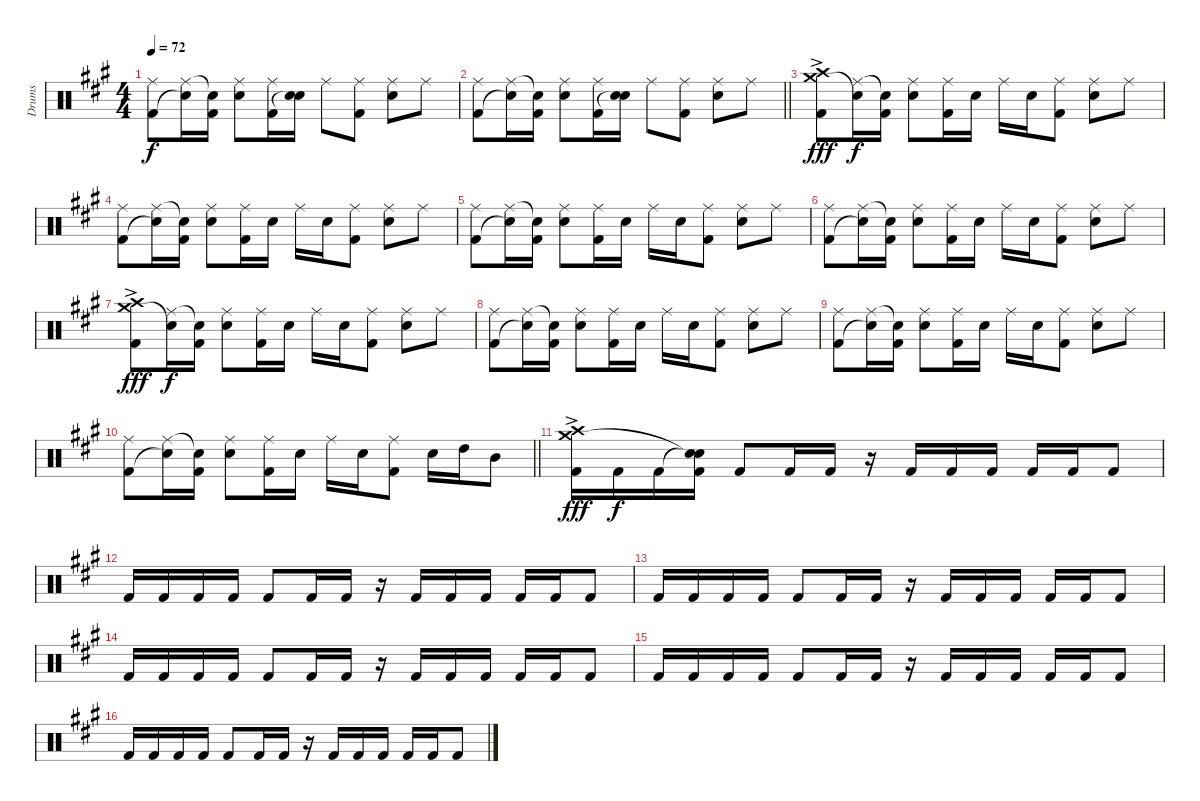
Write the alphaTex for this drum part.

\track ("Drums" "Drums") {instrument percussion}
\staff {score}
\articulation defaults
\ts (4 4)
\tempo 72
\clef neutral
\ks a
("Ride (middle)" "Kick (hit) 2").8{dy f} ("Ride (middle)" "Snare (hit)"{t}).16 ("Snare (hit)"{t} "Kick (hit) 2").16 ("Ride (middle)" "Snare (hit) 2").8 ("Ride (middle)" "Kick (hit) 2").16 ("Snare (hit) 2" "Snare (hit)"{t}).16 "Ride (middle)".8 ("Ride (middle)" "Kick (hit) 2").8 ("Ride (middle)" "Snare (hit) 2").8 "Ride (middle)".8 |
\barLineRight lightlight
("Ride (middle)" "Kick (hit) 2").8 ("Ride (middle)" "Snare (hit)"{t}).16 ("Snare (hit)"{t} "Kick (hit) 2").16 ("Ride (middle)" "Snare (hit) 2").8 ("Ride (middle)" "Kick (hit) 2").16 ("Snare (hit) 2" "Snare (hit)"{t}).16 "Ride (middle)".8 ("Ride (middle)" "Kick (hit) 2").8 ("Ride (middle)" "Snare (hit) 2").8 "Ride (middle)".8 |
("Crash high (hit)"{ac} "Crash medium (hit)"{ac} "Kick (hit) 2"{ac}).8{dy fff} ("Ride (middle)" "Snare (hit)"{t}).16{dy f} ("Snare (hit)"{t} "Kick (hit) 2").16 ("Ride (middle)" "Snare (hit) 2").8 ("Ride (middle)" "Kick (hit) 2").16 "Snare (hit) 2".16 "Ride (middle)".16 "Snare (hit) 2".16 ("Ride (middle)" "Kick (hit) 2").8 ("Ride (middle)" "Snare (hit) 2").8 "Ride (middle)".8 |
("Ride (middle)" "Kick (hit) 2").8 ("Ride (middle)" "Snare (hit)"{t}).16 ("Snare (hit)"{t} "Kick (hit) 2").16 ("Ride (middle)" "Snare (hit) 2").8 ("Ride (middle)" "Kick (hit) 2").16 "Snare (hit) 2".16 "Ride (middle)".16 "Snare (hit) 2".16 ("Ride (middle)" "Kick (hit) 2").8 ("Ride (middle)" "Snare (hit) 2").8 "Ride (middle)".8 |
("Ride (middle)" "Kick (hit) 2").8 ("Ride (middle)" "Snare (hit)"{t}).16 ("Snare (hit)"{t} "Kick (hit) 2").16 ("Ride (middle)" "Snare (hit) 2").8 ("Ride (middle)" "Kick (hit) 2").16 "Snare (hit) 2".16 "Ride (middle)".16 "Snare (hit) 2".16 ("Ride (middle)" "Kick (hit) 2").8 ("Ride (middle)" "Snare (hit) 2").8 "Ride (middle)".8 |
("Ride (middle)" "Kick (hit) 2").8 ("Ride (middle)" "Snare (hit)"{t}).16 ("Snare (hit)"{t} "Kick (hit) 2").16 ("Ride (middle)" "Snare (hit) 2").8 ("Ride (middle)" "Kick (hit) 2").16 "Snare (hit) 2".16 "Ride (middle)".16 "Snare (hit) 2".16 ("Ride (middle)" "Kick (hit) 2").8 ("Ride (middle)" "Snare (hit) 2").8 "Ride (middle)".8 |
("Crash high (hit)"{ac} "Crash medium (hit)"{ac} "Kick (hit) 2"{ac}).8{dy fff} ("Ride (middle)" "Snare (hit)"{t}).16{dy f} ("Snare (hit)"{t} "Kick (hit) 2").16 ("Ride (middle)" "Snare (hit) 2").8 ("Ride (middle)" "Kick (hit) 2").16 "Snare (hit) 2".16 "Ride (middle)".16 "Snare (hit) 2".16 ("Ride (middle)" "Kick (hit) 2").8 ("Ride (middle)" "Snare (hit) 2").8 "Ride (middle)".8 |
("Ride (middle)" "Kick (hit) 2").8 ("Ride (middle)" "Snare (hit)"{t}).16 ("Snare (hit)"{t} "Kick (hit) 2").16 ("Ride (middle)" "Snare (hit) 2").8 ("Ride (middle)" "Kick (hit) 2").16 "Snare (hit) 2".16 "Ride (middle)".16 "Snare (hit) 2".16 ("Ride (middle)" "Kick (hit) 2").8 ("Ride (middle)" "Snare (hit) 2").8 "Ride (middle)".8 |
("Ride (middle)" "Kick (hit) 2").8 ("Ride (middle)" "Snare (hit)"{t}).16 ("Snare (hit)"{t} "Kick (hit) 2").16 ("Ride (middle)" "Snare (hit) 2").8 ("Ride (middle)" "Kick (hit) 2").16 "Snare (hit) 2".16 "Ride (middle)".16 "Snare (hit) 2".16 ("Ride (middle)" "Kick (hit) 2").8 ("Ride (middle)" "Snare (hit) 2").8 "Ride (middle)".8 |
\barLineRight lightlight
("Ride (middle)" "Kick (hit) 2").8 ("Ride (middle)" "Snare (hit)"{t}).16 ("Snare (hit)"{t} "Kick (hit) 2").16 ("Ride (middle)" "Snare (hit) 2").8 ("Ride (middle)" "Kick (hit) 2").16 "Snare (hit) 2".16 "Ride (middle)".16 "Snare (hit) 2".16 ("Ride (middle)" "Kick (hit) 2").8 "Snare (hit) 2".16 "High Tom (hit)".16 "Mid Tom (hit)".8 |
("Crash high (hit)"{ac} "Crash medium (hit)"{ac} "Kick (hit) 2"{ac}).16{dy fff} "Kick (hit) 2".16{dy f} "Kick (hit) 2".16 ("Snare (hit)"{t} "Snare (hit)"{t} "Kick (hit) 2").16 "Kick (hit) 2".8 "Kick (hit) 2".16 "Kick (hit) 2".16 r.16 "Kick (hit) 2".16 "Kick (hit) 2".16 "Kick (hit) 2".16 "Kick (hit) 2".16 "Kick (hit) 2".16 "Kick (hit) 2".8 |
"Kick (hit) 2".16 "Kick (hit) 2".16 "Kick (hit) 2".16 "Kick (hit) 2".16 "Kick (hit) 2".8 "Kick (hit) 2".16 "Kick (hit) 2".16 r.16 "Kick (hit) 2".16 "Kick (hit) 2".16 "Kick (hit) 2".16 "Kick (hit) 2".16 "Kick (hit) 2".16 "Kick (hit) 2".8 |
"Kick (hit) 2".16 "Kick (hit) 2".16 "Kick (hit) 2".16 "Kick (hit) 2".16 "Kick (hit) 2".8 "Kick (hit) 2".16 "Kick (hit) 2".16 r.16 "Kick (hit) 2".16 "Kick (hit) 2".16 "Kick (hit) 2".16 "Kick (hit) 2".16 "Kick (hit) 2".16 "Kick (hit) 2".8 |
"Kick (hit) 2".16 "Kick (hit) 2".16 "Kick (hit) 2".16 "Kick (hit) 2".16 "Kick (hit) 2".8 "Kick (hit) 2".16 "Kick (hit) 2".16 r.16 "Kick (hit) 2".16 "Kick (hit) 2".16 "Kick (hit) 2".16 "Kick (hit) 2".16 "Kick (hit) 2".16 "Kick (hit) 2".8 |
"Kick (hit) 2".16 "Kick (hit) 2".16 "Kick (hit) 2".16 "Kick (hit) 2".16 "Kick (hit) 2".8 "Kick (hit) 2".16 "Kick (hit) 2".16 r.16 "Kick (hit) 2".16 "Kick (hit) 2".16 "Kick (hit) 2".16 "Kick (hit) 2".16 "Kick (hit) 2".16 "Kick (hit) 2".8 |
"Kick (hit) 2".16 "Kick (hit) 2".16 "Kick (hit) 2".16 "Kick (hit) 2".16 "Kick (hit) 2".8 "Kick (hit) 2".16 "Kick (hit) 2".16 r.16 "Kick (hit) 2".16 "Kick (hit) 2".16 "Kick (hit) 2".16 "Kick (hit) 2".16 "Kick (hit) 2".16 "Kick (hit) 2".8
